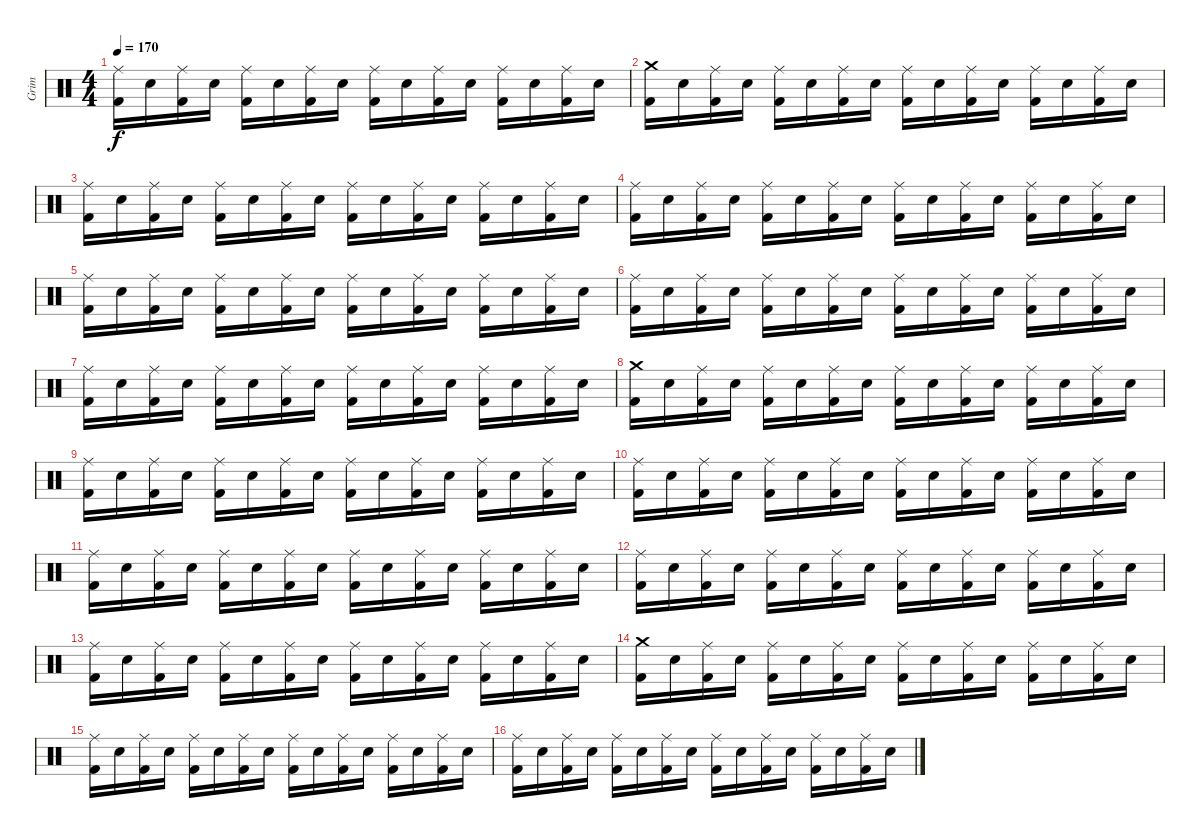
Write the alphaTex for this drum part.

\track ("Grim" "Grim") {instrument percussion}
\staff {score}
\articulation defaults
\ts (4 4)
\tempo 170
\clef neutral
\ks c
("Kick (hit) 2" "Ride (middle)").16{dy f} "Electric Snare (hit)".16 ("Kick (hit) 2" "Ride (middle)").16 "Electric Snare (hit)".16 ("Kick (hit) 2" "Ride (middle)").16 "Electric Snare (hit)".16 ("Kick (hit) 2" "Ride (middle)").16 "Electric Snare (hit)".16 ("Kick (hit) 2" "Ride (middle)").16 "Electric Snare (hit)".16 ("Kick (hit) 2" "Ride (middle)").16 "Electric Snare (hit)".16 ("Kick (hit) 2" "Ride (middle)").16 "Electric Snare (hit)".16 ("Kick (hit) 2" "Ride (middle)").16 "Electric Snare (hit)".16 |
("Kick (hit) 2" "Crash medium (hit)").16 "Electric Snare (hit)".16 ("Kick (hit) 2" "Ride (middle)").16 "Electric Snare (hit)".16 ("Kick (hit) 2" "Ride (middle)").16 "Electric Snare (hit)".16 ("Kick (hit) 2" "Ride (middle)").16 "Electric Snare (hit)".16 ("Kick (hit) 2" "Ride (middle)").16 "Electric Snare (hit)".16 ("Kick (hit) 2" "Ride (middle)").16 "Electric Snare (hit)".16 ("Kick (hit) 2" "Ride (middle)").16 "Electric Snare (hit)".16 ("Kick (hit) 2" "Ride (middle)").16 "Electric Snare (hit)".16 |
("Kick (hit) 2" "Ride (middle)").16 "Electric Snare (hit)".16 ("Kick (hit) 2" "Ride (middle)").16 "Electric Snare (hit)".16 ("Kick (hit) 2" "Ride (middle)").16 "Electric Snare (hit)".16 ("Kick (hit) 2" "Ride (middle)").16 "Electric Snare (hit)".16 ("Kick (hit) 2" "Ride (middle)").16 "Electric Snare (hit)".16 ("Kick (hit) 2" "Ride (middle)").16 "Electric Snare (hit)".16 ("Kick (hit) 2" "Ride (middle)").16 "Electric Snare (hit)".16 ("Kick (hit) 2" "Ride (middle)").16 "Electric Snare (hit)".16 |
("Kick (hit) 2" "Ride (middle)").16 "Electric Snare (hit)".16 ("Kick (hit) 2" "Ride (middle)").16 "Electric Snare (hit)".16 ("Kick (hit) 2" "Ride (middle)").16 "Electric Snare (hit)".16 ("Kick (hit) 2" "Ride (middle)").16 "Electric Snare (hit)".16 ("Kick (hit) 2" "Ride (middle)").16 "Electric Snare (hit)".16 ("Kick (hit) 2" "Ride (middle)").16 "Electric Snare (hit)".16 ("Kick (hit) 2" "Ride (middle)").16 "Electric Snare (hit)".16 ("Kick (hit) 2" "Ride (middle)").16 "Electric Snare (hit)".16 |
("Kick (hit) 2" "Ride (middle)").16 "Electric Snare (hit)".16 ("Kick (hit) 2" "Ride (middle)").16 "Electric Snare (hit)".16 ("Kick (hit) 2" "Ride (middle)").16 "Electric Snare (hit)".16 ("Kick (hit) 2" "Ride (middle)").16 "Electric Snare (hit)".16 ("Kick (hit) 2" "Ride (middle)").16 "Electric Snare (hit)".16 ("Kick (hit) 2" "Ride (middle)").16 "Electric Snare (hit)".16 ("Kick (hit) 2" "Ride (middle)").16 "Electric Snare (hit)".16 ("Kick (hit) 2" "Ride (middle)").16 "Electric Snare (hit)".16 |
("Kick (hit) 2" "Ride (middle)").16 "Electric Snare (hit)".16 ("Kick (hit) 2" "Ride (middle)").16 "Electric Snare (hit)".16 ("Kick (hit) 2" "Ride (middle)").16 "Electric Snare (hit)".16 ("Kick (hit) 2" "Ride (middle)").16 "Electric Snare (hit)".16 ("Kick (hit) 2" "Ride (middle)").16 "Electric Snare (hit)".16 ("Kick (hit) 2" "Ride (middle)").16 "Electric Snare (hit)".16 ("Kick (hit) 2" "Ride (middle)").16 "Electric Snare (hit)".16 ("Kick (hit) 2" "Ride (middle)").16 "Electric Snare (hit)".16 |
("Kick (hit) 2" "Ride (middle)").16 "Electric Snare (hit)".16 ("Kick (hit) 2" "Ride (middle)").16 "Electric Snare (hit)".16 ("Kick (hit) 2" "Ride (middle)").16 "Electric Snare (hit)".16 ("Kick (hit) 2" "Ride (middle)").16 "Electric Snare (hit)".16 ("Kick (hit) 2" "Ride (middle)").16 "Electric Snare (hit)".16 ("Kick (hit) 2" "Ride (middle)").16 "Electric Snare (hit)".16 ("Kick (hit) 2" "Ride (middle)").16 "Electric Snare (hit)".16 ("Kick (hit) 2" "Ride (middle)").16 "Electric Snare (hit)".16 |
("Kick (hit) 2" "Crash medium (hit)").16 "Electric Snare (hit)".16 ("Kick (hit) 2" "Ride (middle)").16 "Electric Snare (hit)".16 ("Kick (hit) 2" "Ride (middle)").16 "Electric Snare (hit)".16 ("Kick (hit) 2" "Ride (middle)").16 "Electric Snare (hit)".16 ("Kick (hit) 2" "Ride (middle)").16 "Electric Snare (hit)".16 ("Kick (hit) 2" "Ride (middle)").16 "Electric Snare (hit)".16 ("Kick (hit) 2" "Ride (middle)").16 "Electric Snare (hit)".16 ("Kick (hit) 2" "Ride (middle)").16 "Electric Snare (hit)".16 |
("Kick (hit) 2" "Ride (middle)").16 "Electric Snare (hit)".16 ("Kick (hit) 2" "Ride (middle)").16 "Electric Snare (hit)".16 ("Kick (hit) 2" "Ride (middle)").16 "Electric Snare (hit)".16 ("Kick (hit) 2" "Ride (middle)").16 "Electric Snare (hit)".16 ("Kick (hit) 2" "Ride (middle)").16 "Electric Snare (hit)".16 ("Kick (hit) 2" "Ride (middle)").16 "Electric Snare (hit)".16 ("Kick (hit) 2" "Ride (middle)").16 "Electric Snare (hit)".16 ("Kick (hit) 2" "Ride (middle)").16 "Electric Snare (hit)".16 |
("Kick (hit) 2" "Ride (middle)").16 "Electric Snare (hit)".16 ("Kick (hit) 2" "Ride (middle)").16 "Electric Snare (hit)".16 ("Kick (hit) 2" "Ride (middle)").16 "Electric Snare (hit)".16 ("Kick (hit) 2" "Ride (middle)").16 "Electric Snare (hit)".16 ("Kick (hit) 2" "Ride (middle)").16 "Electric Snare (hit)".16 ("Kick (hit) 2" "Ride (middle)").16 "Electric Snare (hit)".16 ("Kick (hit) 2" "Ride (middle)").16 "Electric Snare (hit)".16 ("Kick (hit) 2" "Ride (middle)").16 "Electric Snare (hit)".16 |
("Kick (hit) 2" "Ride (middle)").16 "Electric Snare (hit)".16 ("Kick (hit) 2" "Ride (middle)").16 "Electric Snare (hit)".16 ("Kick (hit) 2" "Ride (middle)").16 "Electric Snare (hit)".16 ("Kick (hit) 2" "Ride (middle)").16 "Electric Snare (hit)".16 ("Kick (hit) 2" "Ride (middle)").16 "Electric Snare (hit)".16 ("Kick (hit) 2" "Ride (middle)").16 "Electric Snare (hit)".16 ("Kick (hit) 2" "Ride (middle)").16 "Electric Snare (hit)".16 ("Kick (hit) 2" "Ride (middle)").16 "Electric Snare (hit)".16 |
("Kick (hit) 2" "Ride (middle)").16 "Electric Snare (hit)".16 ("Kick (hit) 2" "Ride (middle)").16 "Electric Snare (hit)".16 ("Kick (hit) 2" "Ride (middle)").16 "Electric Snare (hit)".16 ("Kick (hit) 2" "Ride (middle)").16 "Electric Snare (hit)".16 ("Kick (hit) 2" "Ride (middle)").16 "Electric Snare (hit)".16 ("Kick (hit) 2" "Ride (middle)").16 "Electric Snare (hit)".16 ("Kick (hit) 2" "Ride (middle)").16 "Electric Snare (hit)".16 ("Kick (hit) 2" "Ride (middle)").16 "Electric Snare (hit)".16 |
("Kick (hit) 2" "Ride (middle)").16 "Electric Snare (hit)".16 ("Kick (hit) 2" "Ride (middle)").16 "Electric Snare (hit)".16 ("Kick (hit) 2" "Ride (middle)").16 "Electric Snare (hit)".16 ("Kick (hit) 2" "Ride (middle)").16 "Electric Snare (hit)".16 ("Kick (hit) 2" "Ride (middle)").16 "Electric Snare (hit)".16 ("Kick (hit) 2" "Ride (middle)").16 "Electric Snare (hit)".16 ("Kick (hit) 2" "Ride (middle)").16 "Electric Snare (hit)".16 ("Kick (hit) 2" "Ride (middle)").16 "Electric Snare (hit)".16 |
("Kick (hit) 2" "Crash medium (hit)").16 "Electric Snare (hit)".16 ("Kick (hit) 2" "Ride (middle)").16 "Electric Snare (hit)".16 ("Kick (hit) 2" "Ride (middle)").16 "Electric Snare (hit)".16 ("Kick (hit) 2" "Ride (middle)").16 "Electric Snare (hit)".16 ("Kick (hit) 2" "Ride (middle)").16 "Electric Snare (hit)".16 ("Kick (hit) 2" "Ride (middle)").16 "Electric Snare (hit)".16 ("Kick (hit) 2" "Ride (middle)").16 "Electric Snare (hit)".16 ("Kick (hit) 2" "Ride (middle)").16 "Electric Snare (hit)".16 |
("Kick (hit) 2" "Ride (middle)").16 "Electric Snare (hit)".16 ("Kick (hit) 2" "Ride (middle)").16 "Electric Snare (hit)".16 ("Kick (hit) 2" "Ride (middle)").16 "Electric Snare (hit)".16 ("Kick (hit) 2" "Ride (middle)").16 "Electric Snare (hit)".16 ("Kick (hit) 2" "Ride (middle)").16 "Electric Snare (hit)".16 ("Kick (hit) 2" "Ride (middle)").16 "Electric Snare (hit)".16 ("Kick (hit) 2" "Ride (middle)").16 "Electric Snare (hit)".16 ("Kick (hit) 2" "Ride (middle)").16 "Electric Snare (hit)".16 |
("Kick (hit) 2" "Ride (middle)").16 "Electric Snare (hit)".16 ("Kick (hit) 2" "Ride (middle)").16 "Electric Snare (hit)".16 ("Kick (hit) 2" "Ride (middle)").16 "Electric Snare (hit)".16 ("Kick (hit) 2" "Ride (middle)").16 "Electric Snare (hit)".16 ("Kick (hit) 2" "Ride (middle)").16 "Electric Snare (hit)".16 ("Kick (hit) 2" "Ride (middle)").16 "Electric Snare (hit)".16 ("Kick (hit) 2" "Ride (middle)").16 "Electric Snare (hit)".16 ("Kick (hit) 2" "Ride (middle)").16 "Electric Snare (hit)".16
